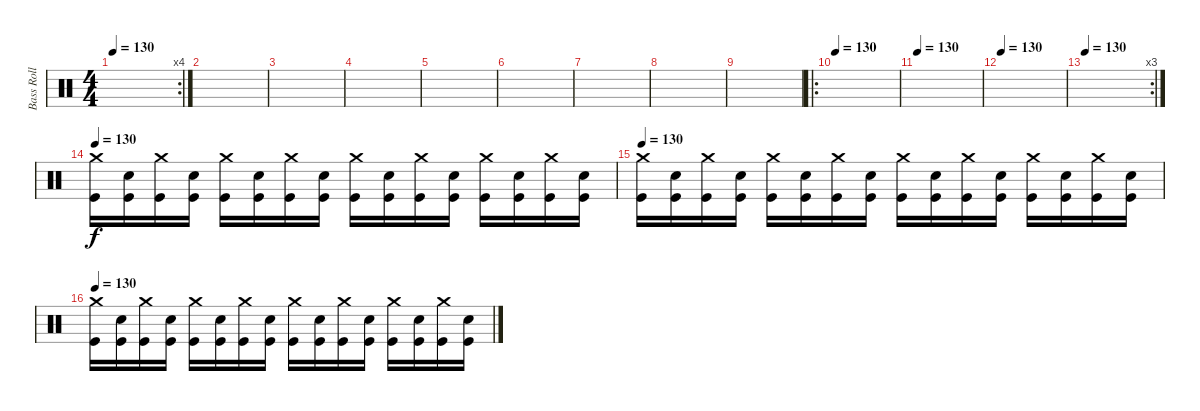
\track ("Bass Roll" "Bass Roll") {instrument percussion}
\staff {score}
\articulation defaults
\rc 4
\ts (4 4)
\tempo 130
\clef neutral
\ks c
|
|
|
|
|
|
|
|
|
\ro
\tempo 130
|
\tempo 130
|
\tempo 130
|
\rc 3
\tempo 130
|
\tempo 130
("Kick (hit)" "Crash medium (hit)").16 ("Kick (hit)" "Snare (hit) 2").16 ("Kick (hit)" "Crash medium (hit)").16 ("Kick (hit)" "Snare (hit) 2").16 ("Kick (hit)" "Crash medium (hit)").16 ("Kick (hit)" "Snare (hit) 2").16 ("Kick (hit)" "Crash medium (hit)").16 ("Kick (hit)" "Snare (hit) 2").16 ("Kick (hit)" "Crash medium (hit)").16 ("Kick (hit)" "Snare (hit) 2").16 ("Kick (hit)" "Crash medium (hit)").16 ("Kick (hit)" "Snare (hit) 2").16 ("Kick (hit)" "Crash medium (hit)").16 ("Kick (hit)" "Snare (hit) 2").16 ("Kick (hit)" "Crash medium (hit)").16 ("Kick (hit)" "Snare (hit) 2").16 |
\tempo 130
("Kick (hit)" "Crash medium (hit)").16 ("Kick (hit)" "Snare (hit) 2").16 ("Kick (hit)" "Crash medium (hit)").16 ("Kick (hit)" "Snare (hit) 2").16 ("Kick (hit)" "Crash medium (hit)").16 ("Kick (hit)" "Snare (hit) 2").16 ("Kick (hit)" "Crash medium (hit)").16 ("Kick (hit)" "Snare (hit) 2").16 ("Kick (hit)" "Crash medium (hit)").16 ("Kick (hit)" "Snare (hit) 2").16 ("Kick (hit)" "Crash medium (hit)").16 ("Kick (hit)" "Snare (hit) 2").16 ("Kick (hit)" "Crash medium (hit)").16 ("Kick (hit)" "Snare (hit) 2").16 ("Kick (hit)" "Crash medium (hit)").16 ("Kick (hit)" "Snare (hit) 2").16 |
\tempo 130
("Kick (hit)" "Crash medium (hit)").16 ("Kick (hit)" "Snare (hit) 2").16 ("Kick (hit)" "Crash medium (hit)").16 ("Kick (hit)" "Snare (hit) 2").16 ("Kick (hit)" "Crash medium (hit)").16 ("Kick (hit)" "Snare (hit) 2").16 ("Kick (hit)" "Crash medium (hit)").16 ("Kick (hit)" "Snare (hit) 2").16 ("Kick (hit)" "Crash medium (hit)").16 ("Kick (hit)" "Snare (hit) 2").16 ("Kick (hit)" "Crash medium (hit)").16 ("Kick (hit)" "Snare (hit) 2").16 ("Kick (hit)" "Crash medium (hit)").16 ("Kick (hit)" "Snare (hit) 2").16 ("Kick (hit)" "Crash medium (hit)").16 ("Kick (hit)" "Snare (hit) 2").16
